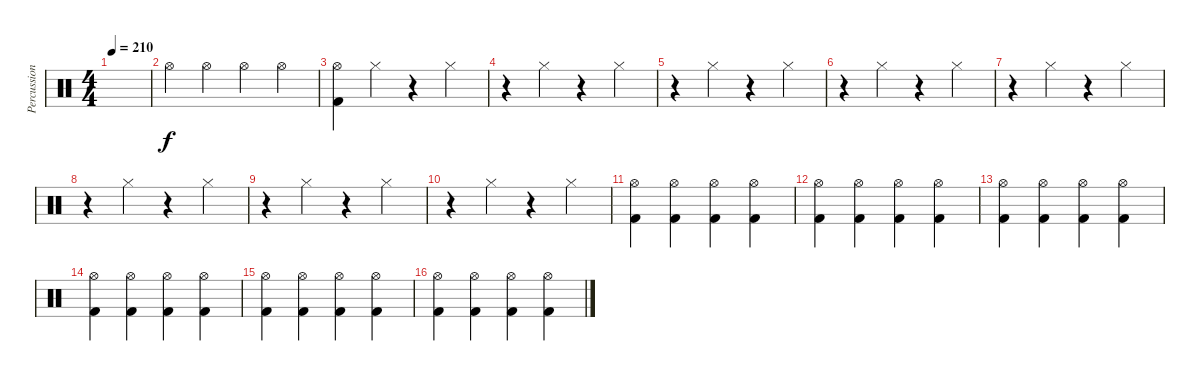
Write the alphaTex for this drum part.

\track ("Percussion" "Percussion") {instrument percussion}
\staff {score}
\articulation defaults
\ts (4 4)
\tempo 210
\clef neutral
\ks c
|
"Hi-Hat (open)".4 "Hi-Hat (open)".4 "Hi-Hat (open)".4 "Hi-Hat (open)".4 |
("Hi-Hat (open)" "Kick (hit) 2").4 "Hi-Hat (closed)".4 r.4 "Hi-Hat (closed)".4 |
r.4 "Hi-Hat (closed)".4 r.4 "Hi-Hat (closed)".4 |
r.4 "Hi-Hat (closed)".4 r.4 "Hi-Hat (closed)".4 |
r.4 "Hi-Hat (closed)".4 r.4 "Hi-Hat (closed)".4 |
r.4 "Hi-Hat (closed)".4 r.4 "Hi-Hat (closed)".4 |
r.4 "Hi-Hat (closed)".4 r.4 "Hi-Hat (closed)".4 |
r.4 "Hi-Hat (closed)".4 r.4 "Hi-Hat (closed)".4 |
r.4 "Hi-Hat (closed)".4 r.4 "Hi-Hat (closed)".4 |
("Hi-Hat (open)" "Kick (hit) 2").4 ("Hi-Hat (open)" "Kick (hit) 2").4 ("Hi-Hat (open)" "Kick (hit) 2").4 ("Hi-Hat (open)" "Kick (hit) 2").4 |
("Hi-Hat (open)" "Kick (hit) 2").4 ("Hi-Hat (open)" "Kick (hit) 2").4 ("Hi-Hat (open)" "Kick (hit) 2").4 ("Hi-Hat (open)" "Kick (hit) 2").4 |
("Hi-Hat (open)" "Kick (hit) 2").4 ("Hi-Hat (open)" "Kick (hit) 2").4 ("Hi-Hat (open)" "Kick (hit) 2").4 ("Hi-Hat (open)" "Kick (hit) 2").4 |
("Hi-Hat (open)" "Kick (hit) 2").4 ("Hi-Hat (open)" "Kick (hit) 2").4 ("Hi-Hat (open)" "Kick (hit) 2").4 ("Hi-Hat (open)" "Kick (hit) 2").4 |
("Hi-Hat (open)" "Kick (hit) 2").4 ("Hi-Hat (open)" "Kick (hit) 2").4 ("Hi-Hat (open)" "Kick (hit) 2").4 ("Hi-Hat (open)" "Kick (hit) 2").4 |
("Hi-Hat (open)" "Kick (hit) 2").4 ("Hi-Hat (open)" "Kick (hit) 2").4 ("Hi-Hat (open)" "Kick (hit) 2").4 ("Hi-Hat (open)" "Kick (hit) 2").4
